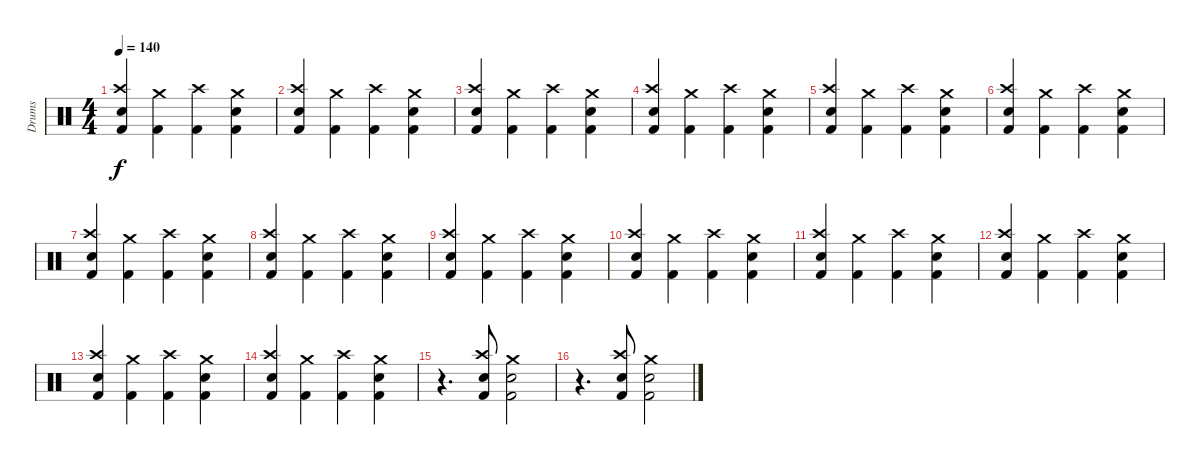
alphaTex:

\track ("Drums" "Drums") {instrument percussion}
\staff {score}
\articulation defaults
\ts (4 4)
\tempo 140
\clef neutral
\ks c
("Electric Snare (hit)" "Crash high (hit)" "Kick (hit) 2").4{dy f} ("Kick (hit) 2" "Crash medium (hit)").4 ("Kick (hit) 2" "Crash high (hit)").4 ("Electric Snare (hit)" "Kick (hit) 2" "Crash medium (hit)").4 |
("Electric Snare (hit)" "Crash high (hit)" "Kick (hit) 2").4 ("Kick (hit) 2" "Crash medium (hit)").4 ("Kick (hit) 2" "Crash high (hit)").4 ("Electric Snare (hit)" "Kick (hit) 2" "Crash medium (hit)").4 |
("Electric Snare (hit)" "Crash high (hit)" "Kick (hit) 2").4 ("Kick (hit) 2" "Crash medium (hit)").4 ("Kick (hit) 2" "Crash high (hit)").4 ("Electric Snare (hit)" "Kick (hit) 2" "Crash medium (hit)").4 |
("Electric Snare (hit)" "Crash high (hit)" "Kick (hit) 2").4 ("Kick (hit) 2" "Crash medium (hit)").4 ("Kick (hit) 2" "Crash high (hit)").4 ("Electric Snare (hit)" "Kick (hit) 2" "Crash medium (hit)").4 |
("Electric Snare (hit)" "Crash high (hit)" "Kick (hit) 2").4 ("Kick (hit) 2" "Crash medium (hit)").4 ("Kick (hit) 2" "Crash high (hit)").4 ("Electric Snare (hit)" "Kick (hit) 2" "Crash medium (hit)").4 |
("Electric Snare (hit)" "Crash high (hit)" "Kick (hit) 2").4 ("Kick (hit) 2" "Crash medium (hit)").4 ("Kick (hit) 2" "Crash high (hit)").4 ("Electric Snare (hit)" "Kick (hit) 2" "Crash medium (hit)").4 |
("Electric Snare (hit)" "Crash high (hit)" "Kick (hit) 2").4 ("Kick (hit) 2" "Crash medium (hit)").4 ("Kick (hit) 2" "Crash high (hit)").4 ("Electric Snare (hit)" "Kick (hit) 2" "Crash medium (hit)").4 |
("Electric Snare (hit)" "Crash high (hit)" "Kick (hit) 2").4 ("Kick (hit) 2" "Crash medium (hit)").4 ("Kick (hit) 2" "Crash high (hit)").4 ("Electric Snare (hit)" "Kick (hit) 2" "Crash medium (hit)").4 |
("Electric Snare (hit)" "Crash high (hit)" "Kick (hit) 2").4 ("Kick (hit) 2" "Crash medium (hit)").4 ("Kick (hit) 2" "Crash high (hit)").4 ("Electric Snare (hit)" "Kick (hit) 2" "Crash medium (hit)").4 |
("Electric Snare (hit)" "Crash high (hit)" "Kick (hit) 2").4 ("Kick (hit) 2" "Crash medium (hit)").4 ("Kick (hit) 2" "Crash high (hit)").4 ("Electric Snare (hit)" "Kick (hit) 2" "Crash medium (hit)").4 |
("Electric Snare (hit)" "Crash high (hit)" "Kick (hit) 2").4 ("Kick (hit) 2" "Crash medium (hit)").4 ("Kick (hit) 2" "Crash high (hit)").4 ("Electric Snare (hit)" "Kick (hit) 2" "Crash medium (hit)").4 |
("Electric Snare (hit)" "Crash high (hit)" "Kick (hit) 2").4 ("Kick (hit) 2" "Crash medium (hit)").4 ("Kick (hit) 2" "Crash high (hit)").4 ("Electric Snare (hit)" "Kick (hit) 2" "Crash medium (hit)").4 |
("Electric Snare (hit)" "Crash high (hit)" "Kick (hit) 2").4 ("Kick (hit) 2" "Crash medium (hit)").4 ("Kick (hit) 2" "Crash high (hit)").4 ("Electric Snare (hit)" "Kick (hit) 2" "Crash medium (hit)").4 |
("Electric Snare (hit)" "Crash high (hit)" "Kick (hit) 2").4 ("Kick (hit) 2" "Crash medium (hit)").4 ("Kick (hit) 2" "Crash high (hit)").4 ("Electric Snare (hit)" "Kick (hit) 2" "Crash medium (hit)").4 |
r.4{d} ("Electric Snare (hit)" "Crash high (hit)" "Kick (hit) 2").8 ("Electric Snare (hit)" "Crash medium (hit)" "Kick (hit) 2").2 |
r.4{d} ("Electric Snare (hit)" "Crash high (hit)" "Kick (hit) 2").8 ("Electric Snare (hit)" "Crash medium (hit)" "Kick (hit) 2").2
